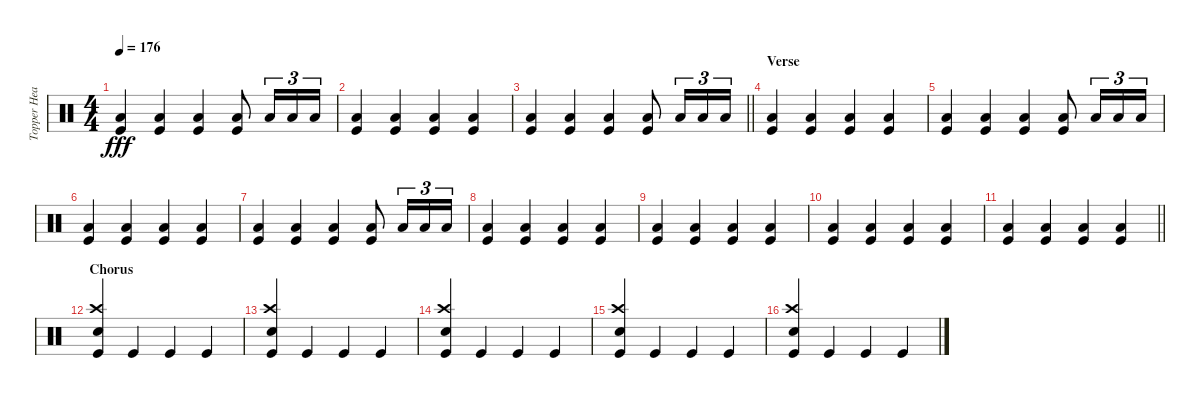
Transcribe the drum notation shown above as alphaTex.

\track ("Topper Headon - Drums" "Topper Hea") {instrument percussion}
\staff {score}
\articulation defaults
\ts (4 4)
\tempo 176
\clef neutral
\ks c
("Kick (hit)" "Low Floor Tom (hit)").4{dy fff} ("Kick (hit)" "Low Floor Tom (hit)").4 ("Kick (hit)" "Low Floor Tom (hit)").4 ("Kick (hit)" "Low Floor Tom (hit)").8 "Low Tom (hit)".16{tu (3 2)} "Low Tom (hit)".16{tu (3 2)} "Low Tom (hit)".16{tu (3 2)} |
("Kick (hit)" "Low Floor Tom (hit)").4 ("Kick (hit)" "Low Floor Tom (hit)").4 ("Kick (hit)" "Low Floor Tom (hit)").4 ("Kick (hit)" "Low Floor Tom (hit)").4 |
\barLineRight lightlight
("Kick (hit)" "Low Floor Tom (hit)").4 ("Kick (hit)" "Low Floor Tom (hit)").4 ("Kick (hit)" "Low Floor Tom (hit)").4 ("Kick (hit)" "Low Floor Tom (hit)").8 "Low Tom (hit)".16{tu (3 2)} "Low Tom (hit)".16{tu (3 2)} "Low Tom (hit)".16{tu (3 2)} |
\section ("" "Verse")
("Kick (hit)" "Low Floor Tom (hit)").4 ("Kick (hit)" "Low Floor Tom (hit)").4 ("Kick (hit)" "Low Floor Tom (hit)").4 ("Kick (hit)" "Low Floor Tom (hit)").4 |
("Kick (hit)" "Low Floor Tom (hit)").4 ("Kick (hit)" "Low Floor Tom (hit)").4 ("Kick (hit)" "Low Floor Tom (hit)").4 ("Kick (hit)" "Low Floor Tom (hit)").8 "Low Tom (hit)".16{tu (3 2)} "Low Tom (hit)".16{tu (3 2)} "Low Tom (hit)".16{tu (3 2)} |
("Kick (hit)" "Low Floor Tom (hit)").4 ("Kick (hit)" "Low Floor Tom (hit)").4 ("Kick (hit)" "Low Floor Tom (hit)").4 ("Kick (hit)" "Low Floor Tom (hit)").4 |
("Kick (hit)" "Low Floor Tom (hit)").4 ("Kick (hit)" "Low Floor Tom (hit)").4 ("Kick (hit)" "Low Floor Tom (hit)").4 ("Kick (hit)" "Low Floor Tom (hit)").8 "Low Tom (hit)".16{tu (3 2)} "Low Tom (hit)".16{tu (3 2)} "Low Tom (hit)".16{tu (3 2)} |
("Kick (hit)" "Low Floor Tom (hit)").4 ("Kick (hit)" "Low Floor Tom (hit)").4 ("Kick (hit)" "Low Floor Tom (hit)").4 ("Kick (hit)" "Low Floor Tom (hit)").4 |
("Kick (hit)" "Low Floor Tom (hit)").4 ("Kick (hit)" "Low Floor Tom (hit)").4 ("Kick (hit)" "Low Floor Tom (hit)").4 ("Kick (hit)" "Low Floor Tom (hit)").4 |
("Kick (hit)" "Low Floor Tom (hit)").4 ("Kick (hit)" "Low Floor Tom (hit)").4 ("Kick (hit)" "Low Floor Tom (hit)").4 ("Kick (hit)" "Low Floor Tom (hit)").4 |
\barLineRight lightlight
("Kick (hit)" "Low Floor Tom (hit)").4 ("Kick (hit)" "Low Floor Tom (hit)").4 ("Kick (hit)" "Low Floor Tom (hit)").4 ("Kick (hit)" "Low Floor Tom (hit)").4 |
\section ("" "Chorus")
("Crash high (hit)" "Snare (hit) 2" "Kick (hit)").4 "Kick (hit)".4 "Kick (hit)".4 "Kick (hit)".4 |
("Crash high (hit)" "Snare (hit) 2" "Kick (hit)").4 "Kick (hit)".4 "Kick (hit)".4 "Kick (hit)".4 |
("Crash high (hit)" "Snare (hit) 2" "Kick (hit)").4 "Kick (hit)".4 "Kick (hit)".4 "Kick (hit)".4 |
("Crash high (hit)" "Snare (hit) 2" "Kick (hit)").4 "Kick (hit)".4 "Kick (hit)".4 "Kick (hit)".4 |
("Crash high (hit)" "Snare (hit) 2" "Kick (hit)").4 "Kick (hit)".4 "Kick (hit)".4 "Kick (hit)".4
